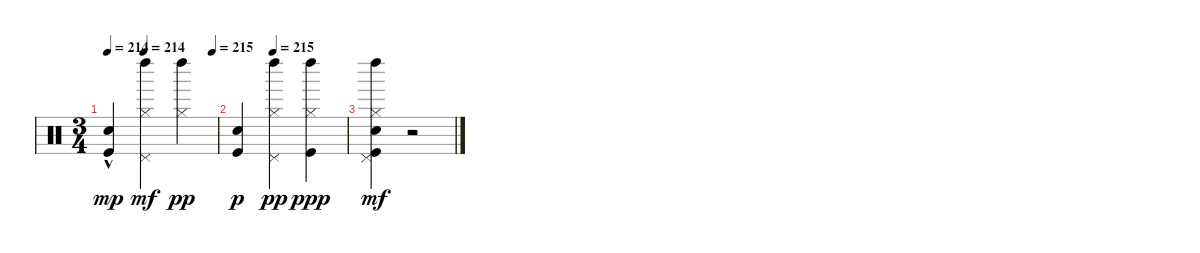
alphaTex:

\track "" {instrument percussion}
\staff {score}
\articulation defaults
\ts (3 4)
\tempo 214
\tempo (214 0.3333333333333333)
\tempo (215 0.9583333333333334)
\clef neutral
\ks c
("Kick (hit)" "Snare (hit)"{hac}).4{dy mp} ("Pedal Hi-Hat (hit)" "Left Maraca (hit)" "Hi-Hat (closed)").4{dy mf} ("Hi-Hat (closed)" "Left Maraca (hit)").4{dy pp} |
\tempo (215 0.3333333333333333)
("Snare (hit)" "Kick (hit)").4{dy p} ("Hi-Hat (closed)" "Pedal Hi-Hat (hit)" "Left Maraca (hit)").4{dy pp} ("Kick (hit)" "Hi-Hat (closed)" "Left Maraca (hit)").4{dy ppp} |
("Kick (hit)" "Snare (hit)" "Pedal Hi-Hat (hit)" "Left Maraca (hit)" "Hi-Hat (closed)").4{dy mf} r.2
